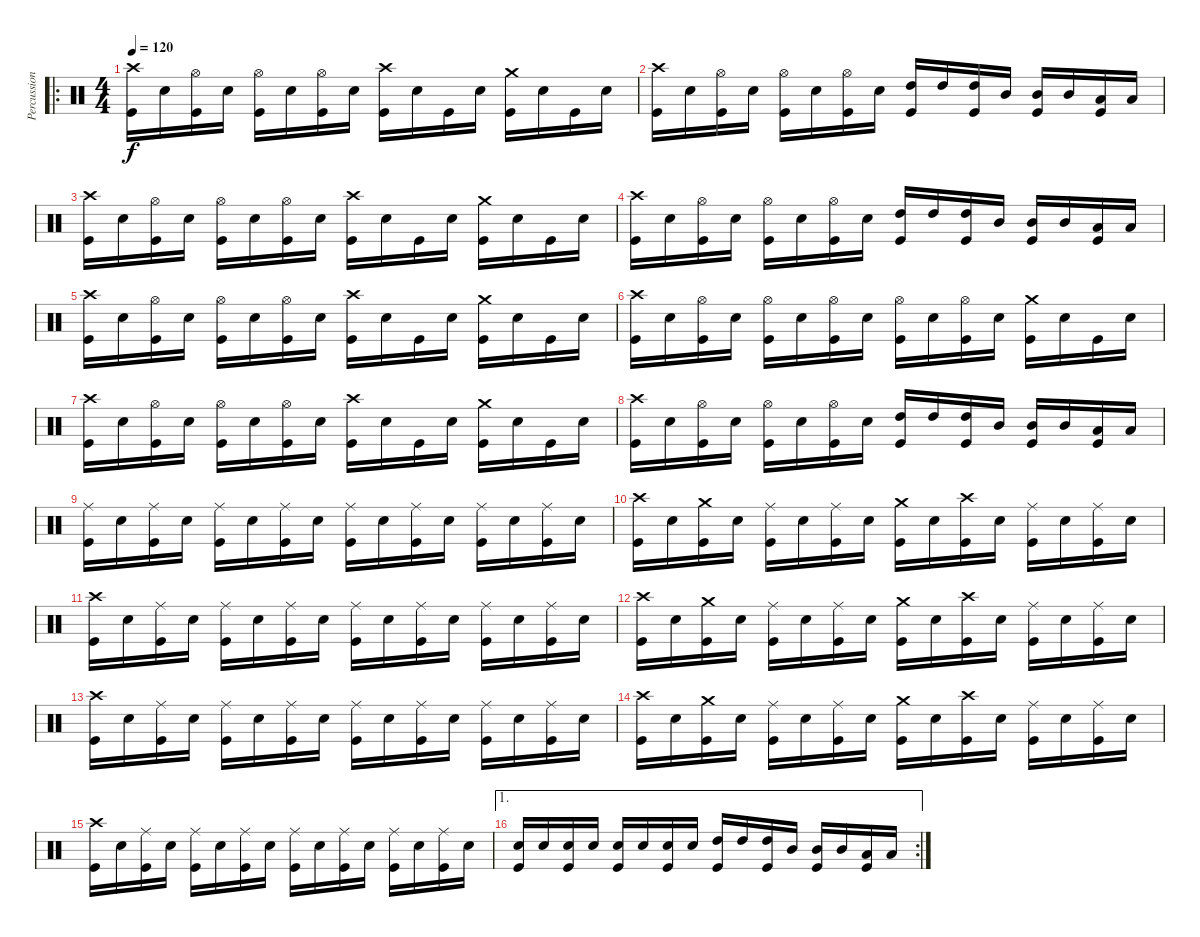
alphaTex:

\track ("Percussioni" "Percussion") {instrument percussion}
\staff {score}
\articulation defaults
\ro
\ts (4 4)
\tempo 120
\clef neutral
\ks c
("Crash high (hit)" "Kick (hit)").16{dy f} "Electric Snare (hit)".16 ("Hi-Hat (open)" "Kick (hit)").16 "Electric Snare (hit)".16 ("Hi-Hat (open)" "Kick (hit)").16 "Electric Snare (hit)".16 ("Hi-Hat (open)" "Kick (hit)").16 "Electric Snare (hit)".16 ("Crash high (hit)" "Kick (hit)").16 "Electric Snare (hit)".16 "Kick (hit)".16 "Electric Snare (hit)".16 ("Crash medium (hit)" "Kick (hit)").16 "Electric Snare (hit)".16 "Kick (hit)".16 "Electric Snare (hit)".16 |
("Crash high (hit)" "Kick (hit)").16 "Electric Snare (hit)".16 ("Hi-Hat (open)" "Kick (hit)").16 "Electric Snare (hit)".16 ("Hi-Hat (open)" "Kick (hit)").16 "Electric Snare (hit)".16 ("Hi-Hat (open)" "Kick (hit)").16 "Electric Snare (hit)".16 ("High Tom (hit)" "Kick (hit)").16 "High Tom (hit)".16 ("High Tom (hit)" "Kick (hit)").16 "Mid Tom (hit)".16 ("Mid Tom (hit)" "Kick (hit)").16 "Mid Tom (hit)".16 ("Low Tom (hit)" "Kick (hit)").16 "Low Tom (hit)".16 |
("Crash high (hit)" "Kick (hit)").16 "Electric Snare (hit)".16 ("Hi-Hat (open)" "Kick (hit)").16 "Electric Snare (hit)".16 ("Hi-Hat (open)" "Kick (hit)").16 "Electric Snare (hit)".16 ("Hi-Hat (open)" "Kick (hit)").16 "Electric Snare (hit)".16 ("Crash high (hit)" "Kick (hit)").16 "Electric Snare (hit)".16 "Kick (hit)".16 "Electric Snare (hit)".16 ("Crash medium (hit)" "Kick (hit)").16 "Electric Snare (hit)".16 "Kick (hit)".16 "Electric Snare (hit)".16 |
("Crash high (hit)" "Kick (hit)").16 "Electric Snare (hit)".16 ("Hi-Hat (open)" "Kick (hit)").16 "Electric Snare (hit)".16 ("Hi-Hat (open)" "Kick (hit)").16 "Electric Snare (hit)".16 ("Hi-Hat (open)" "Kick (hit)").16 "Electric Snare (hit)".16 ("High Tom (hit)" "Kick (hit)").16 "High Tom (hit)".16 ("High Tom (hit)" "Kick (hit)").16 "Mid Tom (hit)".16 ("Mid Tom (hit)" "Kick (hit)").16 "Mid Tom (hit)".16 ("Low Tom (hit)" "Kick (hit)").16 "Low Tom (hit)".16 |
("Crash high (hit)" "Kick (hit)").16 "Electric Snare (hit)".16 ("Hi-Hat (open)" "Kick (hit)").16 "Electric Snare (hit)".16 ("Hi-Hat (open)" "Kick (hit)").16 "Electric Snare (hit)".16 ("Hi-Hat (open)" "Kick (hit)").16 "Electric Snare (hit)".16 ("Crash high (hit)" "Kick (hit)").16 "Electric Snare (hit)".16 "Kick (hit)".16 "Electric Snare (hit)".16 ("Crash medium (hit)" "Kick (hit)").16 "Electric Snare (hit)".16 "Kick (hit)".16 "Electric Snare (hit)".16 |
("Crash high (hit)" "Kick (hit)").16 "Electric Snare (hit)".16 ("Hi-Hat (open)" "Kick (hit)").16 "Electric Snare (hit)".16 ("Hi-Hat (open)" "Kick (hit)").16 "Electric Snare (hit)".16 ("Hi-Hat (open)" "Kick (hit)").16 "Electric Snare (hit)".16 ("Hi-Hat (open)" "Kick (hit)").16 "Electric Snare (hit)".16 ("Hi-Hat (open)" "Kick (hit)").16 "Electric Snare (hit)".16 ("Crash medium (hit)" "Kick (hit)").16 "Electric Snare (hit)".16 "Kick (hit)".16 "Electric Snare (hit)".16 |
("Crash high (hit)" "Kick (hit)").16 "Electric Snare (hit)".16 ("Hi-Hat (open)" "Kick (hit)").16 "Electric Snare (hit)".16 ("Hi-Hat (open)" "Kick (hit)").16 "Electric Snare (hit)".16 ("Hi-Hat (open)" "Kick (hit)").16 "Electric Snare (hit)".16 ("Crash high (hit)" "Kick (hit)").16 "Electric Snare (hit)".16 "Kick (hit)".16 "Electric Snare (hit)".16 ("Crash medium (hit)" "Kick (hit)").16 "Electric Snare (hit)".16 "Kick (hit)".16 "Electric Snare (hit)".16 |
("Crash high (hit)" "Kick (hit)").16 "Electric Snare (hit)".16 ("Hi-Hat (open)" "Kick (hit)").16 "Electric Snare (hit)".16 ("Hi-Hat (open)" "Kick (hit)").16 "Electric Snare (hit)".16 ("Hi-Hat (open)" "Kick (hit)").16 "Electric Snare (hit)".16 ("High Tom (hit)" "Kick (hit)").16 "High Tom (hit)".16 ("High Tom (hit)" "Kick (hit)").16 "Mid Tom (hit)".16 ("Mid Tom (hit)" "Kick (hit)").16 "Mid Tom (hit)".16 ("Low Tom (hit)" "Kick (hit)").16 "Low Tom (hit)".16 |
("Ride (middle)" "Kick (hit)").16 "Electric Snare (hit)".16 ("Ride (middle)" "Kick (hit)").16 "Electric Snare (hit)".16 ("Ride (middle)" "Kick (hit)").16 "Electric Snare (hit)".16 ("Ride (middle)" "Kick (hit)").16 "Electric Snare (hit)".16 ("Ride (middle)" "Kick (hit)").16 "Electric Snare (hit)".16 ("Ride (middle)" "Kick (hit)").16 "Electric Snare (hit)".16 ("Ride (middle)" "Kick (hit)").16 "Electric Snare (hit)".16 ("Ride (middle)" "Kick (hit)").16 "Electric Snare (hit)".16 |
("Crash high (hit)" "Kick (hit)").16 "Electric Snare (hit)".16 ("Crash medium (hit)" "Kick (hit)").16 "Electric Snare (hit)".16 ("Ride (middle)" "Kick (hit)").16 "Electric Snare (hit)".16 ("Ride (middle)" "Kick (hit)").16 "Electric Snare (hit)".16 ("Crash medium (hit)" "Kick (hit)").16 "Electric Snare (hit)".16 ("Crash high (hit)" "Kick (hit)").16 "Electric Snare (hit)".16 ("Ride (middle)" "Kick (hit)").16 "Electric Snare (hit)".16 ("Ride (middle)" "Kick (hit)").16 "Electric Snare (hit)".16 |
("Crash high (hit)" "Kick (hit)").16 "Electric Snare (hit)".16 ("Ride (middle)" "Kick (hit)").16 "Electric Snare (hit)".16 ("Ride (middle)" "Kick (hit)").16 "Electric Snare (hit)".16 ("Ride (middle)" "Kick (hit)").16 "Electric Snare (hit)".16 ("Ride (middle)" "Kick (hit)").16 "Electric Snare (hit)".16 ("Ride (middle)" "Kick (hit)").16 "Electric Snare (hit)".16 ("Ride (middle)" "Kick (hit)").16 "Electric Snare (hit)".16 ("Ride (middle)" "Kick (hit)").16 "Electric Snare (hit)".16 |
("Crash high (hit)" "Kick (hit)").16 "Electric Snare (hit)".16 ("Crash medium (hit)" "Kick (hit)").16 "Electric Snare (hit)".16 ("Ride (middle)" "Kick (hit)").16 "Electric Snare (hit)".16 ("Ride (middle)" "Kick (hit)").16 "Electric Snare (hit)".16 ("Crash medium (hit)" "Kick (hit)").16 "Electric Snare (hit)".16 ("Crash high (hit)" "Kick (hit)").16 "Electric Snare (hit)".16 ("Ride (middle)" "Kick (hit)").16 "Electric Snare (hit)".16 ("Ride (middle)" "Kick (hit)").16 "Electric Snare (hit)".16 |
("Crash high (hit)" "Kick (hit)").16 "Electric Snare (hit)".16 ("Ride (middle)" "Kick (hit)").16 "Electric Snare (hit)".16 ("Ride (middle)" "Kick (hit)").16 "Electric Snare (hit)".16 ("Ride (middle)" "Kick (hit)").16 "Electric Snare (hit)".16 ("Ride (middle)" "Kick (hit)").16 "Electric Snare (hit)".16 ("Ride (middle)" "Kick (hit)").16 "Electric Snare (hit)".16 ("Ride (middle)" "Kick (hit)").16 "Electric Snare (hit)".16 ("Ride (middle)" "Kick (hit)").16 "Electric Snare (hit)".16 |
("Crash high (hit)" "Kick (hit)").16 "Electric Snare (hit)".16 ("Crash medium (hit)" "Kick (hit)").16 "Electric Snare (hit)".16 ("Ride (middle)" "Kick (hit)").16 "Electric Snare (hit)".16 ("Ride (middle)" "Kick (hit)").16 "Electric Snare (hit)".16 ("Crash medium (hit)" "Kick (hit)").16 "Electric Snare (hit)".16 ("Crash high (hit)" "Kick (hit)").16 "Electric Snare (hit)".16 ("Ride (middle)" "Kick (hit)").16 "Electric Snare (hit)".16 ("Ride (middle)" "Kick (hit)").16 "Electric Snare (hit)".16 |
("Crash high (hit)" "Kick (hit)").16 "Electric Snare (hit)".16 ("Ride (middle)" "Kick (hit)").16 "Electric Snare (hit)".16 ("Ride (middle)" "Kick (hit)").16 "Electric Snare (hit)".16 ("Ride (middle)" "Kick (hit)").16 "Electric Snare (hit)".16 ("Ride (middle)" "Kick (hit)").16 "Electric Snare (hit)".16 ("Ride (middle)" "Kick (hit)").16 "Electric Snare (hit)".16 ("Ride (middle)" "Kick (hit)").16 "Electric Snare (hit)".16 ("Ride (middle)" "Kick (hit)").16 "Electric Snare (hit)".16 |
\ae 1
\rc 2
("Electric Snare (hit)" "Kick (hit)").16 "Electric Snare (hit)".16 ("Electric Snare (hit)" "Kick (hit)").16 "Electric Snare (hit)".16 ("Electric Snare (hit)" "Kick (hit)").16 "Electric Snare (hit)".16 ("Electric Snare (hit)" "Kick (hit)").16 "Electric Snare (hit)".16 ("High Tom (hit)" "Kick (hit)").16 "High Tom (hit)".16 ("High Tom (hit)" "Kick (hit)").16 "Mid Tom (hit)".16 ("Mid Tom (hit)" "Kick (hit)").16 "Mid Tom (hit)".16 ("Low Tom (hit)" "Kick (hit)").16 "Low Tom (hit)".16
